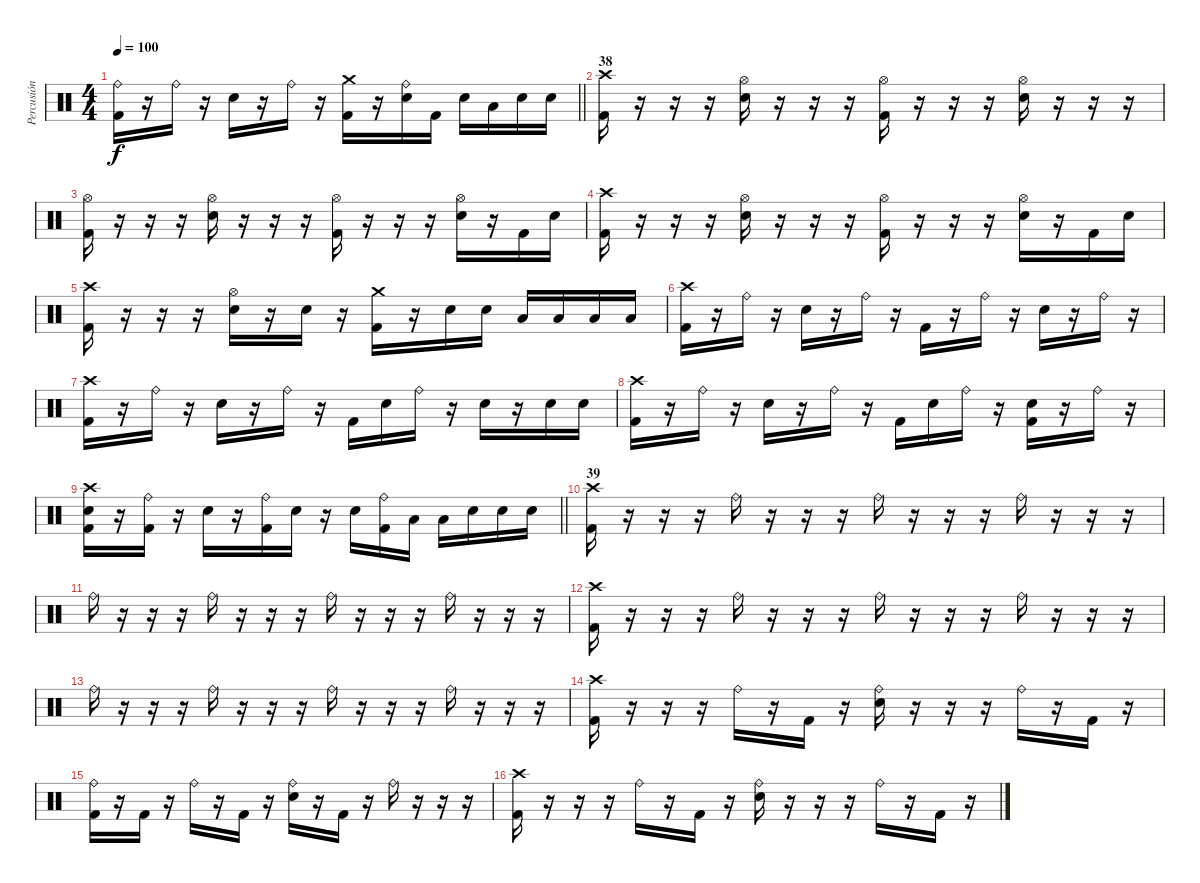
\track ("Percusión" "Percusión") {instrument percussion}
\staff {score}
\articulation defaults
\ts (4 4)
\tempo 100
\clef neutral
\barLineRight lightlight
\ks c
("Ride (bell)" "Kick (hit) 2").16{dy f} r.16 "Ride (bell)".16 r.16 "Electric Snare (hit)".16 r.16 "Ride (bell)".16 r.16 ("Crash medium (hit)" "Kick (hit) 2").16 r.16 ("Ride (bell)" "Electric Snare (hit)").16 "Kick (hit) 2".16 "Electric Snare (hit)".16 "Low Tom (hit)".16 "Electric Snare (hit)".16 "Electric Snare (hit)".16 |
\section ("" "38")
("Crash high (hit)" "Kick (hit) 2").16 r.16 r.16 r.16 ("Hi-Hat (open)" "Electric Snare (hit)").16 r.16 r.16 r.16 ("Hi-Hat (open)" "Kick (hit) 2").16 r.16 r.16 r.16 ("Hi-Hat (open)" "Electric Snare (hit)").16 r.16 r.16 r.16 |
("Hi-Hat (open)" "Kick (hit) 2").16 r.16 r.16 r.16 ("Hi-Hat (open)" "Electric Snare (hit)").16 r.16 r.16 r.16 ("Hi-Hat (open)" "Kick (hit) 2").16 r.16 r.16 r.16 ("Hi-Hat (open)" "Electric Snare (hit)").16 r.16 "Kick (hit) 2".16 "Electric Snare (hit)".16 |
("Crash high (hit)" "Kick (hit) 2").16 r.16 r.16 r.16 ("Hi-Hat (open)" "Electric Snare (hit)").16 r.16 r.16 r.16 ("Hi-Hat (open)" "Kick (hit) 2").16 r.16 r.16 r.16 ("Hi-Hat (open)" "Electric Snare (hit)").16 r.16 "Kick (hit) 2".16 "Electric Snare (hit)".16 |
("Crash high (hit)" "Kick (hit) 2").16 r.16 r.16 r.16 ("Hi-Hat (open)" "Electric Snare (hit)").16 r.16 "Electric Snare (hit)".16 r.16 ("Crash medium (hit)" "Kick (hit) 2").16 r.16 "Electric Snare (hit)".16 "Electric Snare (hit)".16 "Low Tom (hit)".16 "Low Tom (hit)".16 "Low Tom (hit)".16 "Low Tom (hit)".16 |
("Crash high (hit)" "Kick (hit) 2").16 r.16 "Ride (bell)".16 r.16 "Electric Snare (hit)".16 r.16 "Ride (bell)".16 r.16 "Kick (hit) 2".16 r.16 "Ride (bell)".16 r.16 "Electric Snare (hit)".16 r.16 "Ride (bell)".16 r.16 |
("Crash high (hit)" "Kick (hit) 2").16 r.16 "Ride (bell)".16 r.16 "Electric Snare (hit)".16 r.16 "Ride (bell)".16 r.16 "Kick (hit) 2".16 "Electric Snare (hit)".16 "Ride (bell)".16 r.16 "Electric Snare (hit)".16 r.16 "Electric Snare (hit)".16 "Electric Snare (hit)".16 |
("Crash high (hit)" "Kick (hit) 2").16 r.16 "Ride (bell)".16 r.16 "Electric Snare (hit)".16 r.16 "Ride (bell)".16 r.16 "Kick (hit) 2".16 "Electric Snare (hit)".16 "Ride (bell)".16 r.16 ("Electric Snare (hit)" "Kick (hit) 2").16 r.16 "Ride (bell)".16 r.16 |
\barLineRight lightlight
("Crash high (hit)" "Electric Snare (hit)" "Kick (hit) 2").16 r.16 ("Ride (bell)" "Kick (hit) 2").16 r.16 "Electric Snare (hit)".16 r.16 ("Ride (bell)" "Kick (hit) 2").16 "Electric Snare (hit)".16 r.16 "Electric Snare (hit)".16 ("Ride (bell)" "Kick (hit) 2").16 "Low Tom (hit)".16 "Low Tom (hit)".16 "Electric Snare (hit)".16 "Electric Snare (hit)".16 "Electric Snare (hit)".16 |
\section ("" "39")
("Crash high (hit)" "Kick (hit) 2").16 r.16 r.16 r.16 "Ride (bell)".16 r.16 r.16 r.16 "Ride (bell)".16 r.16 r.16 r.16 "Ride (bell)".16 r.16 r.16 r.16 |
"Ride (bell)".16 r.16 r.16 r.16 "Ride (bell)".16 r.16 r.16 r.16 "Ride (bell)".16 r.16 r.16 r.16 "Ride (bell)".16 r.16 r.16 r.16 |
("Crash high (hit)" "Kick (hit) 2").16 r.16 r.16 r.16 "Ride (bell)".16 r.16 r.16 r.16 "Ride (bell)".16 r.16 r.16 r.16 "Ride (bell)".16 r.16 r.16 r.16 |
"Ride (bell)".16 r.16 r.16 r.16 "Ride (bell)".16 r.16 r.16 r.16 "Ride (bell)".16 r.16 r.16 r.16 "Ride (bell)".16 r.16 r.16 r.16 |
("Crash high (hit)" "Kick (hit) 2").16 r.16 r.16 r.16 "Ride (bell)".16 r.16 "Kick (hit) 2".16 r.16 ("Ride (bell)" "Electric Snare (hit)").16 r.16 r.16 r.16 "Ride (bell)".16 r.16 "Kick (hit) 2".16 r.16 |
("Ride (bell)" "Kick (hit) 2").16 r.16 "Kick (hit) 2".16 r.16 "Ride (bell)".16 r.16 "Kick (hit) 2".16 r.16 ("Ride (bell)" "Electric Snare (hit)").16 r.16 "Kick (hit) 2".16 r.16 "Ride (bell)".16 r.16 r.16 r.16 |
("Crash high (hit)" "Kick (hit) 2").16 r.16 r.16 r.16 "Ride (bell)".16 r.16 "Kick (hit) 2".16 r.16 ("Ride (bell)" "Electric Snare (hit)").16 r.16 r.16 r.16 "Ride (bell)".16 r.16 "Kick (hit) 2".16 r.16
